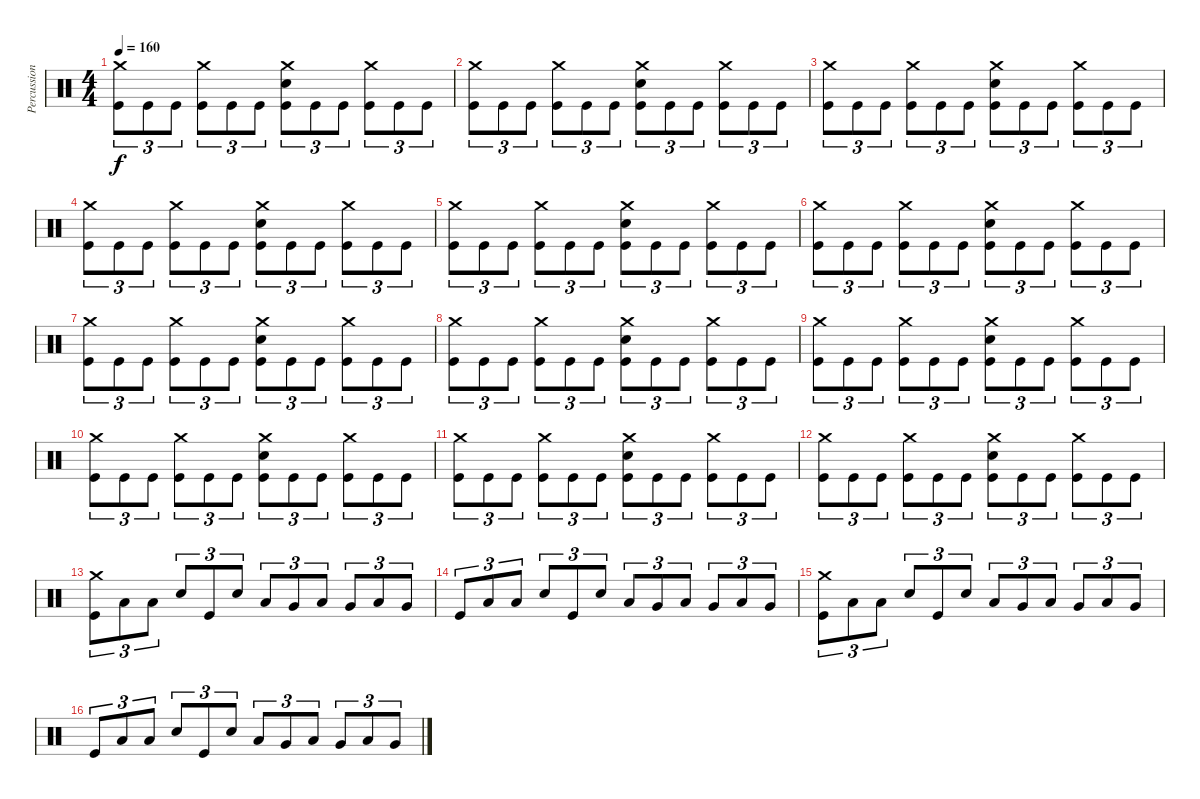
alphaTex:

\track ("Percussion" "Percussion") {instrument percussion}
\staff {score}
\articulation defaults
\ts (4 4)
\tempo 160
\clef neutral
\ks c
("Crash medium (hit)" "Kick (hit)").8{tu (3 2) dy f} "Kick (hit)".8{tu (3 2)} "Kick (hit)".8{tu (3 2)} ("Crash medium (hit)" "Kick (hit)").8{tu (3 2)} "Kick (hit)".8{tu (3 2)} "Kick (hit)".8{tu (3 2)} ("Crash medium (hit)" "Electric Snare (hit)" "Kick (hit)").8{tu (3 2)} "Kick (hit)".8{tu (3 2)} "Kick (hit)".8{tu (3 2)} ("Crash medium (hit)" "Kick (hit)").8{tu (3 2)} "Kick (hit)".8{tu (3 2)} "Kick (hit)".8{tu (3 2)} |
("Crash medium (hit)" "Kick (hit)").8{tu (3 2)} "Kick (hit)".8{tu (3 2)} "Kick (hit)".8{tu (3 2)} ("Crash medium (hit)" "Kick (hit)").8{tu (3 2)} "Kick (hit)".8{tu (3 2)} "Kick (hit)".8{tu (3 2)} ("Crash medium (hit)" "Electric Snare (hit)" "Kick (hit)").8{tu (3 2)} "Kick (hit)".8{tu (3 2)} "Kick (hit)".8{tu (3 2)} ("Crash medium (hit)" "Kick (hit)").8{tu (3 2)} "Kick (hit)".8{tu (3 2)} "Kick (hit)".8{tu (3 2)} |
("Crash medium (hit)" "Kick (hit)").8{tu (3 2)} "Kick (hit)".8{tu (3 2)} "Kick (hit)".8{tu (3 2)} ("Crash medium (hit)" "Kick (hit)").8{tu (3 2)} "Kick (hit)".8{tu (3 2)} "Kick (hit)".8{tu (3 2)} ("Crash medium (hit)" "Electric Snare (hit)" "Kick (hit)").8{tu (3 2)} "Kick (hit)".8{tu (3 2)} "Kick (hit)".8{tu (3 2)} ("Crash medium (hit)" "Kick (hit)").8{tu (3 2)} "Kick (hit)".8{tu (3 2)} "Kick (hit)".8{tu (3 2)} |
("Crash medium (hit)" "Kick (hit)").8{tu (3 2)} "Kick (hit)".8{tu (3 2)} "Kick (hit)".8{tu (3 2)} ("Crash medium (hit)" "Kick (hit)").8{tu (3 2)} "Kick (hit)".8{tu (3 2)} "Kick (hit)".8{tu (3 2)} ("Crash medium (hit)" "Electric Snare (hit)" "Kick (hit)").8{tu (3 2)} "Kick (hit)".8{tu (3 2)} "Kick (hit)".8{tu (3 2)} ("Crash medium (hit)" "Kick (hit)").8{tu (3 2)} "Kick (hit)".8{tu (3 2)} "Kick (hit)".8{tu (3 2)} |
("Crash medium (hit)" "Kick (hit)").8{tu (3 2)} "Kick (hit)".8{tu (3 2)} "Kick (hit)".8{tu (3 2)} ("Crash medium (hit)" "Kick (hit)").8{tu (3 2)} "Kick (hit)".8{tu (3 2)} "Kick (hit)".8{tu (3 2)} ("Crash medium (hit)" "Electric Snare (hit)" "Kick (hit)").8{tu (3 2)} "Kick (hit)".8{tu (3 2)} "Kick (hit)".8{tu (3 2)} ("Crash medium (hit)" "Kick (hit)").8{tu (3 2)} "Kick (hit)".8{tu (3 2)} "Kick (hit)".8{tu (3 2)} |
("Crash medium (hit)" "Kick (hit)").8{tu (3 2)} "Kick (hit)".8{tu (3 2)} "Kick (hit)".8{tu (3 2)} ("Crash medium (hit)" "Kick (hit)").8{tu (3 2)} "Kick (hit)".8{tu (3 2)} "Kick (hit)".8{tu (3 2)} ("Crash medium (hit)" "Electric Snare (hit)" "Kick (hit)").8{tu (3 2)} "Kick (hit)".8{tu (3 2)} "Kick (hit)".8{tu (3 2)} ("Crash medium (hit)" "Kick (hit)").8{tu (3 2)} "Kick (hit)".8{tu (3 2)} "Kick (hit)".8{tu (3 2)} |
("Crash medium (hit)" "Kick (hit)").8{tu (3 2)} "Kick (hit)".8{tu (3 2)} "Kick (hit)".8{tu (3 2)} ("Crash medium (hit)" "Kick (hit)").8{tu (3 2)} "Kick (hit)".8{tu (3 2)} "Kick (hit)".8{tu (3 2)} ("Crash medium (hit)" "Electric Snare (hit)" "Kick (hit)").8{tu (3 2)} "Kick (hit)".8{tu (3 2)} "Kick (hit)".8{tu (3 2)} ("Crash medium (hit)" "Kick (hit)").8{tu (3 2)} "Kick (hit)".8{tu (3 2)} "Kick (hit)".8{tu (3 2)} |
("Crash medium (hit)" "Kick (hit)").8{tu (3 2)} "Kick (hit)".8{tu (3 2)} "Kick (hit)".8{tu (3 2)} ("Crash medium (hit)" "Kick (hit)").8{tu (3 2)} "Kick (hit)".8{tu (3 2)} "Kick (hit)".8{tu (3 2)} ("Crash medium (hit)" "Electric Snare (hit)" "Kick (hit)").8{tu (3 2)} "Kick (hit)".8{tu (3 2)} "Kick (hit)".8{tu (3 2)} ("Crash medium (hit)" "Kick (hit)").8{tu (3 2)} "Kick (hit)".8{tu (3 2)} "Kick (hit)".8{tu (3 2)} |
("Crash medium (hit)" "Kick (hit)").8{tu (3 2)} "Kick (hit)".8{tu (3 2)} "Kick (hit)".8{tu (3 2)} ("Crash medium (hit)" "Kick (hit)").8{tu (3 2)} "Kick (hit)".8{tu (3 2)} "Kick (hit)".8{tu (3 2)} ("Crash medium (hit)" "Electric Snare (hit)" "Kick (hit)").8{tu (3 2)} "Kick (hit)".8{tu (3 2)} "Kick (hit)".8{tu (3 2)} ("Crash medium (hit)" "Kick (hit)").8{tu (3 2)} "Kick (hit)".8{tu (3 2)} "Kick (hit)".8{tu (3 2)} |
("Crash medium (hit)" "Kick (hit)").8{tu (3 2)} "Kick (hit)".8{tu (3 2)} "Kick (hit)".8{tu (3 2)} ("Crash medium (hit)" "Kick (hit)").8{tu (3 2)} "Kick (hit)".8{tu (3 2)} "Kick (hit)".8{tu (3 2)} ("Crash medium (hit)" "Electric Snare (hit)" "Kick (hit)").8{tu (3 2)} "Kick (hit)".8{tu (3 2)} "Kick (hit)".8{tu (3 2)} ("Crash medium (hit)" "Kick (hit)").8{tu (3 2)} "Kick (hit)".8{tu (3 2)} "Kick (hit)".8{tu (3 2)} |
("Crash medium (hit)" "Kick (hit)").8{tu (3 2)} "Kick (hit)".8{tu (3 2)} "Kick (hit)".8{tu (3 2)} ("Crash medium (hit)" "Kick (hit)").8{tu (3 2)} "Kick (hit)".8{tu (3 2)} "Kick (hit)".8{tu (3 2)} ("Crash medium (hit)" "Electric Snare (hit)" "Kick (hit)").8{tu (3 2)} "Kick (hit)".8{tu (3 2)} "Kick (hit)".8{tu (3 2)} ("Crash medium (hit)" "Kick (hit)").8{tu (3 2)} "Kick (hit)".8{tu (3 2)} "Kick (hit)".8{tu (3 2)} |
("Crash medium (hit)" "Kick (hit)").8{tu (3 2)} "Kick (hit)".8{tu (3 2)} "Kick (hit)".8{tu (3 2)} ("Crash medium (hit)" "Kick (hit)").8{tu (3 2)} "Kick (hit)".8{tu (3 2)} "Kick (hit)".8{tu (3 2)} ("Crash medium (hit)" "Electric Snare (hit)" "Kick (hit)").8{tu (3 2)} "Kick (hit)".8{tu (3 2)} "Kick (hit)".8{tu (3 2)} ("Crash medium (hit)" "Kick (hit)").8{tu (3 2)} "Kick (hit)".8{tu (3 2)} "Kick (hit)".8{tu (3 2)} |
("Crash medium (hit)" "Kick (hit)").8{tu (3 2)} "Low Floor Tom (hit)".8{tu (3 2)} "Low Floor Tom (hit)".8{tu (3 2)} "Electric Snare (hit)".8{tu (3 2)} "Kick (hit)".8{tu (3 2)} "Electric Snare (hit)".8{tu (3 2)} "Low Floor Tom (hit)".8{tu (3 2)} "Very Low Tom (hit)".8{tu (3 2)} "Low Floor Tom (hit)".8{tu (3 2)} "Very Low Tom (hit)".8{tu (3 2)} "Low Floor Tom (hit)".8{tu (3 2)} "Very Low Tom (hit)".8{tu (3 2)} |
"Kick (hit)".8{tu (3 2)} "Low Floor Tom (hit)".8{tu (3 2)} "Low Floor Tom (hit)".8{tu (3 2)} "Electric Snare (hit)".8{tu (3 2)} "Kick (hit)".8{tu (3 2)} "Electric Snare (hit)".8{tu (3 2)} "Low Floor Tom (hit)".8{tu (3 2)} "Very Low Tom (hit)".8{tu (3 2)} "Low Floor Tom (hit)".8{tu (3 2)} "Very Low Tom (hit)".8{tu (3 2)} "Low Floor Tom (hit)".8{tu (3 2)} "Very Low Tom (hit)".8{tu (3 2)} |
("Crash medium (hit)" "Kick (hit)").8{tu (3 2)} "Low Floor Tom (hit)".8{tu (3 2)} "Low Floor Tom (hit)".8{tu (3 2)} "Electric Snare (hit)".8{tu (3 2)} "Kick (hit)".8{tu (3 2)} "Electric Snare (hit)".8{tu (3 2)} "Low Floor Tom (hit)".8{tu (3 2)} "Very Low Tom (hit)".8{tu (3 2)} "Low Floor Tom (hit)".8{tu (3 2)} "Very Low Tom (hit)".8{tu (3 2)} "Low Floor Tom (hit)".8{tu (3 2)} "Very Low Tom (hit)".8{tu (3 2)} |
"Kick (hit)".8{tu (3 2)} "Low Floor Tom (hit)".8{tu (3 2)} "Low Floor Tom (hit)".8{tu (3 2)} "Electric Snare (hit)".8{tu (3 2)} "Kick (hit)".8{tu (3 2)} "Electric Snare (hit)".8{tu (3 2)} "Low Floor Tom (hit)".8{tu (3 2)} "Very Low Tom (hit)".8{tu (3 2)} "Low Floor Tom (hit)".8{tu (3 2)} "Very Low Tom (hit)".8{tu (3 2)} "Low Floor Tom (hit)".8{tu (3 2)} "Very Low Tom (hit)".8{tu (3 2)}
